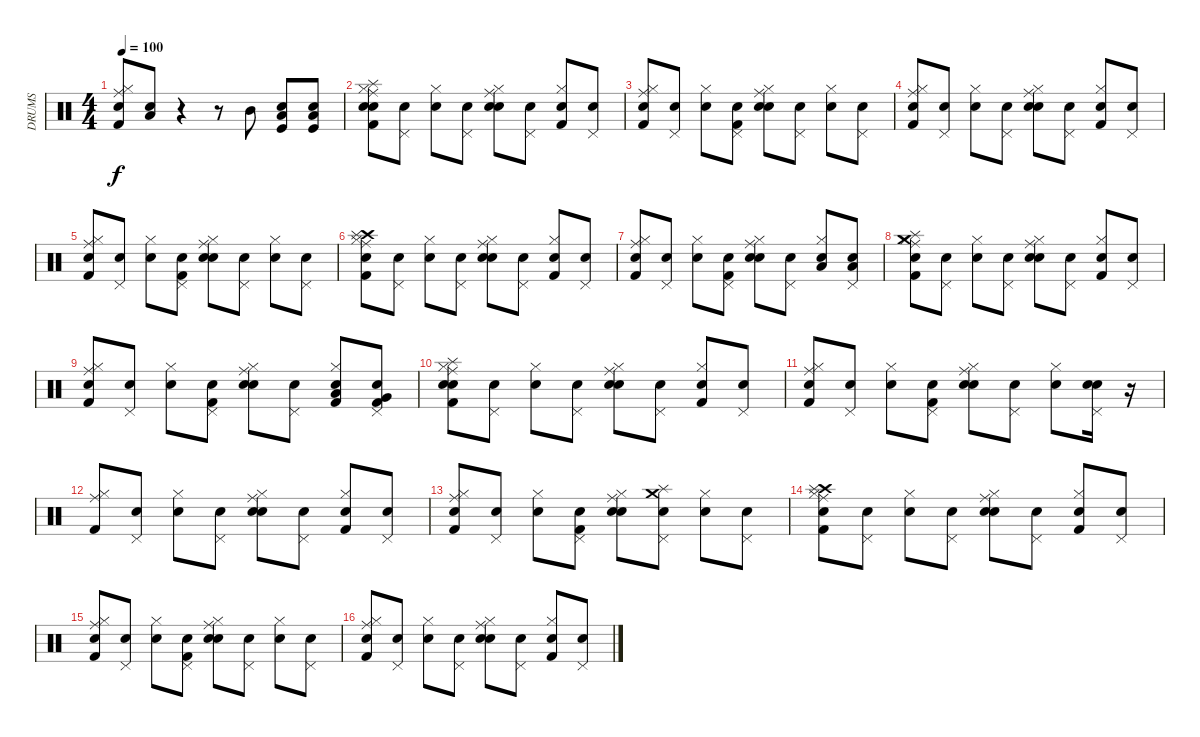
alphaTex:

\track ("DRUMS" "DRUMS") {instrument percussion}
\staff {score}
\articulation defaults
\ts (4 4)
\tempo 100
\clef neutral
\ks c
("Snare (hit)" "Ride (middle)" "Hi-Hat (closed)" "Kick (hit) 2").8{dy f} ("Snare (hit)" "Low Tom (hit)").8 r.4 r.8 "Mid Tom (hit)".8 ("Snare (hit)" "Kick (hit)" "Low Tom (hit)").8 ("Snare (hit)" "Kick (hit)" "Low Tom (hit)").8 |
("Snare (hit)" "Ride (middle)" "Hi-Hat (closed)" "Kick (hit) 2" "Snare (hit) 2" "Splash (hit)").8 ("Snare (hit)" "Pedal Hi-Hat (hit)").8 ("Snare (hit)" "Hi-Hat (closed)").8 ("Snare (hit)" "Pedal Hi-Hat (hit)").8 ("Snare (hit)" "Ride (middle)" "Hi-Hat (closed)" "Snare (hit) 2").8 ("Snare (hit)" "Pedal Hi-Hat (hit)").8 ("Snare (hit)" "Hi-Hat (closed)" "Kick (hit) 2").8 ("Snare (hit)" "Pedal Hi-Hat (hit)").8 |
("Snare (hit)" "Ride (middle)" "Hi-Hat (closed)" "Kick (hit) 2").8 ("Snare (hit)" "Pedal Hi-Hat (hit)").8 ("Snare (hit)" "Hi-Hat (closed)").8 ("Snare (hit)" "Pedal Hi-Hat (hit)" "Kick (hit) 2").8 ("Snare (hit)" "Ride (middle)" "Hi-Hat (closed)" "Snare (hit) 2").8 ("Snare (hit)" "Pedal Hi-Hat (hit)").8 ("Snare (hit)" "Hi-Hat (closed)").8 ("Snare (hit)" "Pedal Hi-Hat (hit)").8 |
("Snare (hit)" "Kick (hit) 2" "Ride (middle)" "Hi-Hat (closed)").8 ("Snare (hit)" "Pedal Hi-Hat (hit)").8 ("Snare (hit)" "Hi-Hat (closed)").8 ("Snare (hit)" "Pedal Hi-Hat (hit)").8 ("Snare (hit)" "Ride (middle)" "Hi-Hat (closed)" "Snare (hit) 2").8 ("Snare (hit)" "Pedal Hi-Hat (hit)").8 ("Snare (hit)" "Hi-Hat (closed)" "Kick (hit) 2").8 ("Snare (hit)" "Pedal Hi-Hat (hit)").8 |
("Snare (hit)" "Ride (middle)" "Hi-Hat (closed)" "Kick (hit) 2").8 ("Snare (hit)" "Pedal Hi-Hat (hit)").8 ("Snare (hit)" "Hi-Hat (closed)").8 ("Snare (hit)" "Pedal Hi-Hat (hit)" "Kick (hit) 2").8 ("Snare (hit)" "Ride (middle)" "Hi-Hat (closed)" "Snare (hit) 2").8 ("Snare (hit)" "Pedal Hi-Hat (hit)").8 ("Snare (hit)" "Hi-Hat (closed)").8 ("Snare (hit)" "Pedal Hi-Hat (hit)").8 |
("Snare (hit)" "Hi-Hat (closed)" "Ride (middle)" "Kick (hit) 2" "Crash high (hit)" "Splash (hit)").8 ("Snare (hit)" "Pedal Hi-Hat (hit)").8 ("Snare (hit)" "Hi-Hat (closed)").8 ("Snare (hit)" "Pedal Hi-Hat (hit)").8 ("Snare (hit)" "Ride (middle)" "Hi-Hat (closed)" "Snare (hit) 2").8 ("Snare (hit)" "Pedal Hi-Hat (hit)").8 ("Snare (hit)" "Hi-Hat (closed)" "Kick (hit) 2").8 ("Snare (hit)" "Pedal Hi-Hat (hit)").8 |
("Snare (hit)" "Ride (middle)" "Hi-Hat (closed)" "Kick (hit) 2").8 ("Snare (hit)" "Pedal Hi-Hat (hit)").8 ("Snare (hit)" "Hi-Hat (closed)").8 ("Snare (hit)" "Pedal Hi-Hat (hit)" "Kick (hit) 2").8 ("Snare (hit)" "Ride (middle)" "Hi-Hat (closed)" "Snare (hit) 2").8 ("Snare (hit)" "Pedal Hi-Hat (hit)").8 ("Snare (hit)" "Low Tom (hit)" "Hi-Hat (closed)").8 ("Snare (hit)" "Low Tom (hit)" "Pedal Hi-Hat (hit)").8 |
("Snare (hit)" "Crash medium (hit)" "Splash (hit)" "Kick (hit) 2" "Ride (middle)" "Hi-Hat (closed)").8 ("Snare (hit)" "Pedal Hi-Hat (hit)").8 ("Snare (hit)" "Hi-Hat (closed)").8 ("Snare (hit)" "Pedal Hi-Hat (hit)").8 ("Snare (hit)" "Ride (middle)" "Hi-Hat (closed)" "Snare (hit) 2").8 ("Snare (hit)" "Pedal Hi-Hat (hit)").8 ("Snare (hit)" "Hi-Hat (closed)" "Kick (hit) 2").8 ("Snare (hit)" "Pedal Hi-Hat (hit)").8 |
("Snare (hit)" "Ride (middle)" "Hi-Hat (closed)" "Kick (hit) 2").8 ("Snare (hit)" "Pedal Hi-Hat (hit)").8 ("Snare (hit)" "Hi-Hat (closed)").8 ("Snare (hit)" "Pedal Hi-Hat (hit)" "Kick (hit) 2").8 ("Snare (hit)" "Ride (middle)" "Hi-Hat (closed)" "Snare (hit) 2").8 ("Snare (hit)" "Pedal Hi-Hat (hit)").8 ("Snare (hit)" "Kick (hit) 2" "Low Tom (hit)" "Hi-Hat (closed)").8 ("Snare (hit)" "Very Low Tom (hit)" "Kick (hit) 2" "Pedal Hi-Hat (hit)").8 |
("Snare (hit)" "Ride (middle)" "Hi-Hat (closed)" "Kick (hit) 2" "Snare (hit) 2" "Splash (hit)").8 ("Snare (hit)" "Pedal Hi-Hat (hit)").8 ("Snare (hit)" "Hi-Hat (closed)").8 ("Snare (hit)" "Pedal Hi-Hat (hit)").8 ("Snare (hit)" "Ride (middle)" "Hi-Hat (closed)" "Snare (hit) 2").8 ("Snare (hit)" "Pedal Hi-Hat (hit)").8 ("Snare (hit)" "Hi-Hat (closed)" "Kick (hit) 2").8 ("Snare (hit)" "Pedal Hi-Hat (hit)").8 |
("Snare (hit)" "Ride (middle)" "Hi-Hat (closed)" "Kick (hit) 2").8 ("Snare (hit)" "Pedal Hi-Hat (hit)").8 ("Snare (hit)" "Hi-Hat (closed)").8 ("Snare (hit)" "Pedal Hi-Hat (hit)" "Kick (hit) 2").8 ("Snare (hit)" "Ride (middle)" "Hi-Hat (closed)" "Snare (hit) 2").8 ("Snare (hit)" "Pedal Hi-Hat (hit)").8 ("Snare (hit)" "Hi-Hat (closed)").8 ("Snare (hit)" "Snare (hit) 2" "Pedal Hi-Hat (hit)").16 r.16 |
("Kick (hit) 2" "Ride (middle)" "Hi-Hat (closed)").8 ("Snare (hit)" "Pedal Hi-Hat (hit)").8 ("Snare (hit)" "Hi-Hat (closed)").8 ("Snare (hit)" "Pedal Hi-Hat (hit)").8 ("Snare (hit)" "Ride (middle)" "Hi-Hat (closed)" "Snare (hit) 2").8 ("Snare (hit)" "Pedal Hi-Hat (hit)").8 ("Snare (hit)" "Hi-Hat (closed)" "Kick (hit) 2").8 ("Snare (hit)" "Pedal Hi-Hat (hit)").8 |
("Snare (hit)" "Ride (middle)" "Hi-Hat (closed)" "Kick (hit) 2").8 ("Snare (hit)" "Pedal Hi-Hat (hit)").8 ("Snare (hit)" "Hi-Hat (closed)").8 ("Snare (hit)" "Pedal Hi-Hat (hit)" "Kick (hit) 2").8 ("Snare (hit)" "Ride (middle)" "Hi-Hat (closed)" "Snare (hit) 2").8 ("Snare (hit)" "Splash (hit)" "Crash medium (hit)" "Pedal Hi-Hat (hit)").8 ("Snare (hit)" "Hi-Hat (closed)").8 ("Snare (hit)" "Pedal Hi-Hat (hit)").8 |
("Snare (hit)" "Hi-Hat (closed)" "Ride (middle)" "Kick (hit) 2" "Crash high (hit)" "Splash (hit)").8 ("Snare (hit)" "Pedal Hi-Hat (hit)").8 ("Snare (hit)" "Hi-Hat (closed)").8 ("Snare (hit)" "Pedal Hi-Hat (hit)").8 ("Snare (hit)" "Ride (middle)" "Hi-Hat (closed)" "Snare (hit) 2").8 ("Snare (hit)" "Pedal Hi-Hat (hit)").8 ("Snare (hit)" "Hi-Hat (closed)" "Kick (hit) 2").8 ("Snare (hit)" "Pedal Hi-Hat (hit)").8 |
("Snare (hit)" "Ride (middle)" "Hi-Hat (closed)" "Kick (hit) 2").8 ("Snare (hit)" "Pedal Hi-Hat (hit)").8 ("Snare (hit)" "Hi-Hat (closed)").8 ("Snare (hit)" "Pedal Hi-Hat (hit)" "Kick (hit) 2").8 ("Snare (hit)" "Ride (middle)" "Hi-Hat (closed)" "Snare (hit) 2").8 ("Snare (hit)" "Pedal Hi-Hat (hit)").8 ("Snare (hit)" "Hi-Hat (closed)").8 ("Snare (hit)" "Pedal Hi-Hat (hit)").8 |
("Snare (hit)" "Kick (hit) 2" "Ride (middle)" "Hi-Hat (closed)").8 ("Snare (hit)" "Pedal Hi-Hat (hit)").8 ("Snare (hit)" "Hi-Hat (closed)").8 ("Snare (hit)" "Pedal Hi-Hat (hit)").8 ("Snare (hit)" "Ride (middle)" "Hi-Hat (closed)" "Snare (hit) 2").8 ("Snare (hit)" "Pedal Hi-Hat (hit)").8 ("Snare (hit)" "Hi-Hat (closed)" "Kick (hit) 2").8 ("Snare (hit)" "Pedal Hi-Hat (hit)").8
